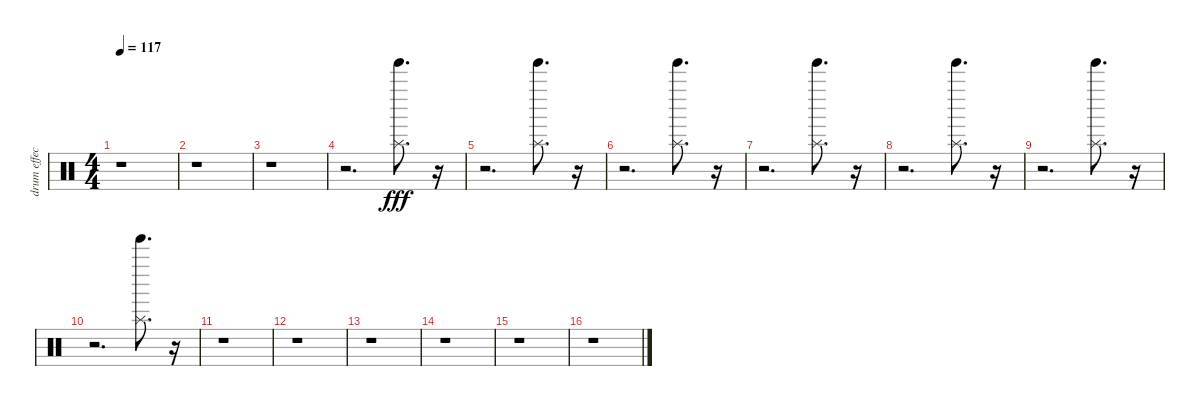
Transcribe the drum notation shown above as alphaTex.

\track ("drum effect" "drum effec") {instrument percussion}
\staff {score}
\articulation defaults
\ts (4 4)
\tempo 117
\clef neutral
\ks c
r.1{dy fff} |
r.1 |
r.1 |
r.2{d} ("Splash (hit)" "Tinkle Bell (hit)").8{d} r.16 |
r.2{d} ("Splash (hit)" "Tinkle Bell (hit)").8{d} r.16 |
r.2{d} ("Splash (hit)" "Tinkle Bell (hit)").8{d} r.16 |
r.2{d} ("Splash (hit)" "Tinkle Bell (hit)").8{d} r.16 |
r.2{d} ("Splash (hit)" "Tinkle Bell (hit)").8{d} r.16 |
r.2{d} ("Splash (hit)" "Tinkle Bell (hit)").8{d} r.16 |
r.2{d} ("Splash (hit)" "Tinkle Bell (hit)").8{d} r.16 |
r.1 |
r.1 |
r.1 |
r.1 |
r.1 |
r.1
